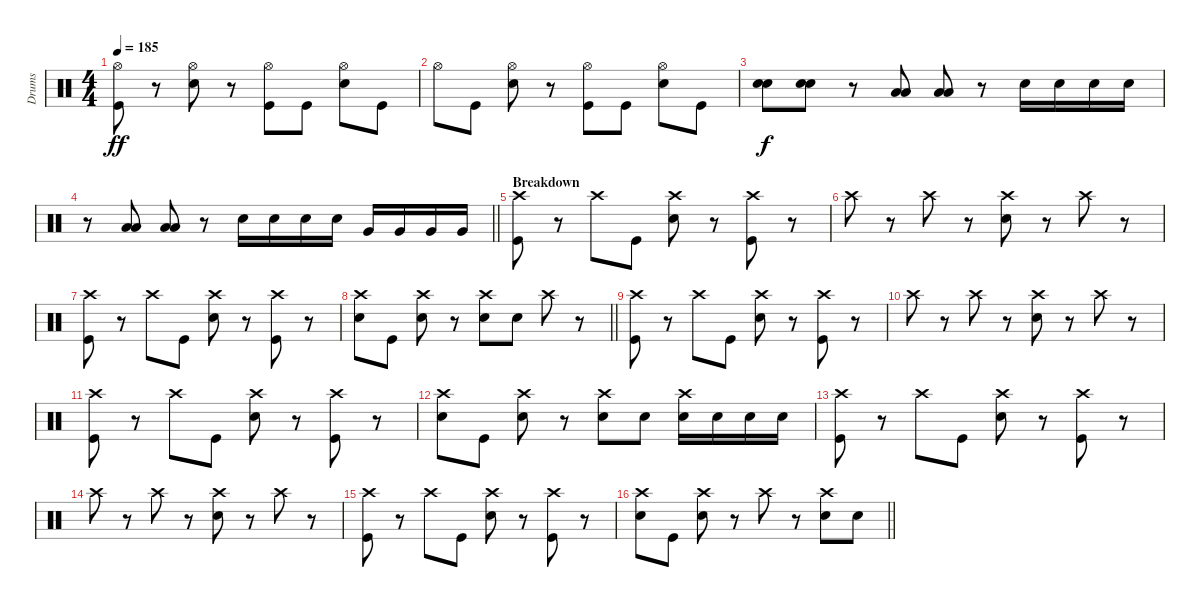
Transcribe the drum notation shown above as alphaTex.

\track ("Drums" "Drums") {instrument percussion}
\staff {score}
\articulation defaults
\ts (4 4)
\tempo 185
\clef neutral
\ks c
("Hi-Hat (open)" "Kick (hit)").8{dy ff} r.8 ("Hi-Hat (open)" "Electric Snare (hit)").8 r.8 ("Hi-Hat (open)" "Kick (hit)").8 "Kick (hit)".8 ("Hi-Hat (open)" "Electric Snare (hit)").8 "Kick (hit)".8 |
"Hi-Hat (open)".8 "Kick (hit)".8 ("Hi-Hat (open)" "Electric Snare (hit)").8 r.8 ("Hi-Hat (open)" "Kick (hit)").8 "Kick (hit)".8 ("Hi-Hat (open)" "Electric Snare (hit)").8 "Kick (hit)".8 |
("Electric Snare (hit)" "Electric Snare (hit)").8{dy f} ("Electric Snare (hit)" "Electric Snare (hit)").8 r.8 ("Low Floor Tom (hit)" "Low Floor Tom (hit)").8 ("Low Floor Tom (hit)" "Low Floor Tom (hit)").8 r.8 "Electric Snare (hit)".16 "Electric Snare (hit)".16 "Electric Snare (hit)".16 "Electric Snare (hit)".16 |
\barLineRight lightlight
r.8 ("Low Floor Tom (hit)" "Low Floor Tom (hit)").8 ("Low Floor Tom (hit)" "Low Floor Tom (hit)").8 r.8 "Electric Snare (hit)".16 "Electric Snare (hit)".16 "Electric Snare (hit)".16 "Electric Snare (hit)".16 "Very Low Tom (hit)".16 "Very Low Tom (hit)".16 "Very Low Tom (hit)".16 "Very Low Tom (hit)".16 |
\section ("" "Breakdown")
("Crash high (hit)" "Kick (hit)").8{volume 16} r.8 "Crash high (hit)".8 "Kick (hit)".8 ("Crash high (hit)" "Electric Snare (hit)").8 r.8 ("Crash high (hit)" "Kick (hit)").8 r.8 |
"Crash high (hit)".8 r.8 "Crash high (hit)".8 r.8 ("Crash high (hit)" "Electric Snare (hit)").8 r.8 "Crash high (hit)".8 r.8 |
("Crash high (hit)" "Kick (hit)").8 r.8 "Crash high (hit)".8 "Kick (hit)".8 ("Crash high (hit)" "Electric Snare (hit)").8 r.8 ("Crash high (hit)" "Kick (hit)").8 r.8 |
\barLineRight lightlight
("Crash high (hit)" "Electric Snare (hit)").8 "Kick (hit)".8 ("Crash high (hit)" "Electric Snare (hit)").8 r.8 ("Crash high (hit)" "Electric Snare (hit)").8 "Electric Snare (hit)".8 "Crash high (hit)".8 r.8 |
("Crash high (hit)" "Kick (hit)").8 r.8 "Crash high (hit)".8 "Kick (hit)".8 ("Crash high (hit)" "Electric Snare (hit)").8 r.8 ("Crash high (hit)" "Kick (hit)").8 r.8 |
"Crash high (hit)".8 r.8 "Crash high (hit)".8 r.8 ("Crash high (hit)" "Electric Snare (hit)").8 r.8 "Crash high (hit)".8 r.8 |
("Crash high (hit)" "Kick (hit)").8 r.8 "Crash high (hit)".8 "Kick (hit)".8 ("Crash high (hit)" "Electric Snare (hit)").8 r.8 ("Crash high (hit)" "Kick (hit)").8 r.8 |
("Crash high (hit)" "Electric Snare (hit)").8 "Kick (hit)".8 ("Crash high (hit)" "Electric Snare (hit)").8 r.8 ("Crash high (hit)" "Electric Snare (hit)").8 "Electric Snare (hit)".8 ("Crash high (hit)" "Electric Snare (hit)").16 "Electric Snare (hit)".16 "Electric Snare (hit)".16 "Electric Snare (hit)".16 |
("Crash high (hit)" "Kick (hit)").8 r.8 "Crash high (hit)".8 "Kick (hit)".8 ("Crash high (hit)" "Electric Snare (hit)").8 r.8 ("Crash high (hit)" "Kick (hit)").8 r.8 |
"Crash high (hit)".8 r.8 "Crash high (hit)".8 r.8 ("Crash high (hit)" "Electric Snare (hit)").8 r.8 "Crash high (hit)".8 r.8 |
("Crash high (hit)" "Kick (hit)").8 r.8 "Crash high (hit)".8 "Kick (hit)".8 ("Crash high (hit)" "Electric Snare (hit)").8 r.8 ("Crash high (hit)" "Kick (hit)").8 r.8 |
\barLineRight lightlight
("Crash high (hit)" "Electric Snare (hit)").8 "Kick (hit)".8 ("Crash high (hit)" "Electric Snare (hit)").8 r.8 "Crash high (hit)".8 r.8 ("Crash high (hit)" "Electric Snare (hit)").8 "Electric Snare (hit)".8
